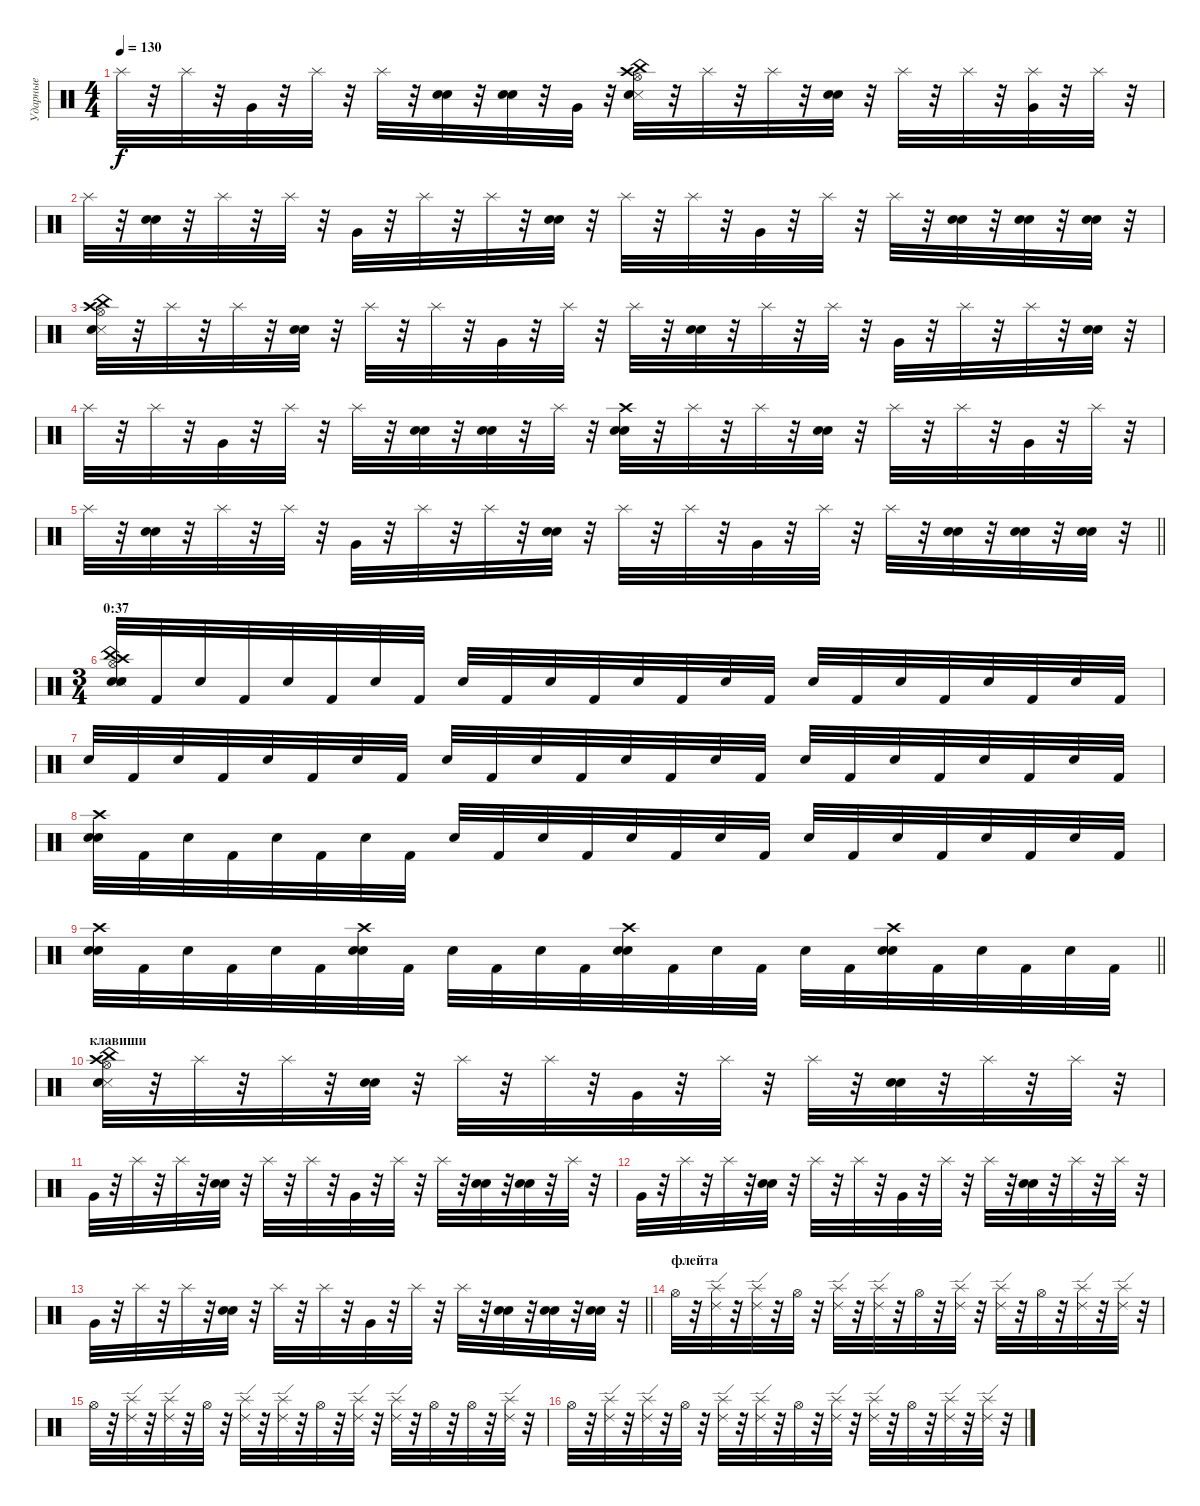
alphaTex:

\track ("Ударные" "Ударные") {instrument percussion}
\staff {score}
\articulation defaults
\ts (4 4)
\tempo 130
\clef neutral
\ks c "Splash (hit)".32{dy f}
r.32 "Splash (hit)".32 r.32 "Very Low Tom (hit)".32 r.32 "Splash (hit)".32 r.32 "Splash (hit)".32 r.32 ("Electric Snare (hit)" "Snare (hit) 2").32 r.32 ("Electric Snare (hit)" "Snare (hit) 2").32 r.32 "Very Low Tom (hit)".32 r.32 ("Crash high (hit)" "China (hit)" "Hi-Hat (open)" "Metronome (hit)" "Snare (hit) 2").32 r.32 "Splash (hit)".32 r.32 "Splash (hit)".32 r.32 ("Snare (hit) 2" "Electric Snare (hit)").32 r.32 "Splash (hit)".32 r.32 "Splash (hit)".32 r.32 ("Splash (hit)" "Very Low Tom (hit)").32 r.32 "Splash (hit)".32 r.32 |
"Splash (hit)".32 r.32 ("Snare (hit) 2" "Electric Snare (hit)").32 r.32 "Splash (hit)".32 r.32 "Splash (hit)".32 r.32 "Very Low Tom (hit)".32 r.32 "Splash (hit)".32 r.32 "Splash (hit)".32 r.32 ("Snare (hit) 2" "Electric Snare (hit)").32 r.32 "Splash (hit)".32 r.32 "Splash (hit)".32 r.32 "Very Low Tom (hit)".32 r.32 "Splash (hit)".32 r.32 "Splash (hit)".32 r.32 ("Snare (hit) 2" "Electric Snare (hit)").32 r.32 ("Snare (hit) 2" "Electric Snare (hit)").32 r.32 ("Snare (hit) 2" "Electric Snare (hit)").32 r.32 |
("Crash high (hit)" "China (hit)" "Hi-Hat (open)" "Metronome (hit)" "Snare (hit) 2").32 r.32 "Splash (hit)".32 r.32 "Splash (hit)".32 r.32 ("Electric Snare (hit)" "Snare (hit) 2").32 r.32 "Splash (hit)".32 r.32 "Splash (hit)".32 r.32 "Very Low Tom (hit)".32 r.32 "Splash (hit)".32 r.32 "Splash (hit)".32 r.32 ("Electric Snare (hit)" "Snare (hit) 2").32 r.32 "Splash (hit)".32 r.32 "Splash (hit)".32 r.32 "Very Low Tom (hit)".32 r.32 "Splash (hit)".32 r.32 "Splash (hit)".32 r.32 ("Electric Snare (hit)" "Snare (hit) 2").32 r.32 |
"Splash (hit)".32 r.32 "Splash (hit)".32 r.32 "Very Low Tom (hit)".32 r.32 "Splash (hit)".32 r.32 "Splash (hit)".32 r.32 ("Electric Snare (hit)" "Snare (hit) 2").32 r.32 ("Electric Snare (hit)" "Snare (hit) 2").32 r.32 "Splash (hit)".32 r.32 ("Crash high (hit)" "Snare (hit) 2" "Electric Snare (hit)").32 r.32 "Splash (hit)".32 r.32 "Splash (hit)".32 r.32 ("Snare (hit) 2" "Electric Snare (hit)").32 r.32 "Splash (hit)".32 r.32 "Splash (hit)".32 r.32 "Very Low Tom (hit)".32 r.32 "Splash (hit)".32 r.32 |
\barLineRight lightlight "Splash (hit)".32
r.32 ("Electric Snare (hit)" "Snare (hit) 2").32 r.32 "Splash (hit)".32 r.32 "Splash (hit)".32 r.32 "Very Low Tom (hit)".32 r.32 "Splash (hit)".32 r.32 "Splash (hit)".32 r.32 ("Electric Snare (hit)" "Snare (hit) 2").32 r.32 "Splash (hit)".32 r.32 "Splash (hit)".32 r.32 "Very Low Tom (hit)".32 r.32 "Splash (hit)".32 r.32 "Splash (hit)".32 r.32 ("Snare (hit) 2" "Electric Snare (hit)").32 r.32 ("Snare (hit) 2" "Electric Snare (hit)").32 r.32 ("Snare (hit) 2" "Electric Snare (hit)").32 r.32 |
\ts (3 4)
\section ("" "0:37")
("Electric Snare (hit)" "Crash high (hit)" "China (hit)" "Hi-Hat (open)" "Metronome (hit)" "Snare (hit) 2").32 "Kick (hit) 2".32 "Electric Snare (hit)".32 "Kick (hit) 2".32 "Electric Snare (hit)".32 "Kick (hit) 2".32 "Electric Snare (hit)".32 "Kick (hit) 2".32 "Electric Snare (hit)".32 "Kick (hit) 2".32 "Electric Snare (hit)".32 "Kick (hit) 2".32 "Electric Snare (hit)".32 "Kick (hit) 2".32 "Electric Snare (hit)".32 "Kick (hit) 2".32 "Electric Snare (hit)".32 "Kick (hit) 2".32 "Electric Snare (hit)".32 "Kick (hit) 2".32 "Electric Snare (hit)".32 "Kick (hit) 2".32 "Electric Snare (hit)".32 "Kick (hit) 2".32 |
"Electric Snare (hit)".32 "Kick (hit) 2".32 "Electric Snare (hit)".32 "Kick (hit) 2".32 "Electric Snare (hit)".32 "Kick (hit) 2".32 "Electric Snare (hit)".32 "Kick (hit) 2".32 "Electric Snare (hit)".32 "Kick (hit) 2".32 "Electric Snare (hit)".32 "Kick (hit) 2".32 "Electric Snare (hit)".32 "Kick (hit) 2".32 "Electric Snare (hit)".32 "Kick (hit) 2".32 "Electric Snare (hit)".32 "Kick (hit) 2".32 "Electric Snare (hit)".32 "Kick (hit) 2".32 "Electric Snare (hit)".32 "Kick (hit) 2".32 "Electric Snare (hit)".32 "Kick (hit) 2".32 |
("Electric Snare (hit)" "Crash high (hit)" "Snare (hit) 2").32 "Kick (hit) 2".32 "Electric Snare (hit)".32 "Kick (hit) 2".32 "Electric Snare (hit)".32 "Kick (hit) 2".32 "Electric Snare (hit)".32 "Kick (hit) 2".32 "Electric Snare (hit)".32 "Kick (hit) 2".32 "Electric Snare (hit)".32 "Kick (hit) 2".32 "Electric Snare (hit)".32 "Kick (hit) 2".32 "Electric Snare (hit)".32 "Kick (hit) 2".32 "Electric Snare (hit)".32 "Kick (hit) 2".32 "Electric Snare (hit)".32 "Kick (hit) 2".32 "Electric Snare (hit)".32 "Kick (hit) 2".32 "Electric Snare (hit)".32 "Kick (hit) 2".32 |
\barLineRight lightlight
("Electric Snare (hit)" "Crash high (hit)" "Snare (hit) 2").32 "Kick (hit) 2".32 "Electric Snare (hit)".32 "Kick (hit) 2".32 "Electric Snare (hit)".32 "Kick (hit) 2".32 ("Electric Snare (hit)" "Crash high (hit)" "Snare (hit) 2").32 "Kick (hit) 2".32 "Electric Snare (hit)".32 "Kick (hit) 2".32 "Electric Snare (hit)".32 "Kick (hit) 2".32 ("Electric Snare (hit)" "Crash high (hit)" "Snare (hit) 2").32 "Kick (hit) 2".32 "Electric Snare (hit)".32 "Kick (hit) 2".32 "Electric Snare (hit)".32 "Kick (hit) 2".32 ("Electric Snare (hit)" "Crash high (hit)" "Snare (hit) 2").32 "Kick (hit) 2".32 "Electric Snare (hit)".32 "Kick (hit) 2".32 "Electric Snare (hit)".32 "Kick (hit) 2".32 |
\section ("" "клавиши")
("Crash high (hit)" "China (hit)" "Hi-Hat (open)" "Metronome (hit)" "Snare (hit) 2").32 r.32 "Splash (hit)".32 r.32 "Splash (hit)".32 r.32 ("Electric Snare (hit)" "Snare (hit) 2").32 r.32 "Splash (hit)".32 r.32 "Splash (hit)".32 r.32 "Very Low Tom (hit)".32 r.32 "Splash (hit)".32 r.32 "Splash (hit)".32 r.32 ("Electric Snare (hit)" "Snare (hit) 2").32 r.32 "Splash (hit)".32 r.32 "Splash (hit)".32 r.32 |
"Very Low Tom (hit)".32 r.32 "Splash (hit)".32 r.32 "Splash (hit)".32 r.32 ("Electric Snare (hit)" "Snare (hit) 2").32 r.32 "Splash (hit)".32 r.32 "Splash (hit)".32 r.32 "Very Low Tom (hit)".32 r.32 "Splash (hit)".32 r.32 "Splash (hit)".32 r.32 ("Electric Snare (hit)" "Snare (hit) 2").32 r.32 ("Electric Snare (hit)" "Snare (hit) 2").32 r.32 "Splash (hit)".32 r.32 |
"Very Low Tom (hit)".32 r.32 "Splash (hit)".32 r.32 "Splash (hit)".32 r.32 ("Electric Snare (hit)" "Snare (hit) 2").32 r.32 "Splash (hit)".32 r.32 "Splash (hit)".32 r.32 "Very Low Tom (hit)".32 r.32 "Splash (hit)".32 r.32 "Splash (hit)".32 r.32 ("Electric Snare (hit)" "Snare (hit) 2").32 r.32 "Splash (hit)".32 r.32 "Splash (hit)".32 r.32 |
\barLineRight lightlight "Very Low Tom (hit)".32
r.32 "Splash (hit)".32 r.32 "Splash (hit)".32 r.32 ("Electric Snare (hit)" "Snare (hit) 2").32 r.32 "Splash (hit)".32 r.32 "Splash (hit)".32 r.32 "Very Low Tom (hit)".32 r.32 "Splash (hit)".32 r.32 "Splash (hit)".32 r.32 ("Electric Snare (hit)" "Snare (hit) 2").32 r.32 ("Electric Snare (hit)" "Snare (hit) 2").32 r.32 ("Electric Snare (hit)" "Snare (hit) 2").32 r.32 |
\section ("" "флейта")
"Hi-Hat (open)".32{volume 9} r.32 ("Ride (edge) 2" "Splash (hit)").32 r.32 ("Ride (edge) 2" "Splash (hit)").32 r.32 "Hi-Hat (open)".32 r.32 ("Ride (edge) 2" "Splash (hit)").32 r.32 ("Ride (edge) 2" "Splash (hit)").32 r.32 "Hi-Hat (open)".32 r.32 ("Ride (edge) 2" "Splash (hit)").32 r.32 ("Ride (edge) 2" "Splash (hit)").32 r.32 "Hi-Hat (open)".32 r.32 ("Ride (edge) 2" "Splash (hit)").32 r.32 ("Ride (edge) 2" "Splash (hit)").32 r.32 |
"Hi-Hat (open)".32 r.32 ("Ride (edge) 2" "Splash (hit)").32 r.32 ("Ride (edge) 2" "Splash (hit)").32 r.32 "Hi-Hat (open)".32 r.32 ("Ride (edge) 2" "Splash (hit)").32 r.32 ("Ride (edge) 2" "Splash (hit)").32 r.32 "Hi-Hat (open)".32 r.32 ("Ride (edge) 2" "Splash (hit)").32 r.32 ("Ride (edge) 2" "Splash (hit)").32 r.32 "Hi-Hat (open)".32 r.32 "Hi-Hat (open)".32 r.32 ("Ride (edge) 2" "Splash (hit)").32 r.32 |
"Hi-Hat (open)".32 r.32 ("Ride (edge) 2" "Splash (hit)").32 r.32 ("Ride (edge) 2" "Splash (hit)").32 r.32 "Hi-Hat (open)".32 r.32 ("Ride (edge) 2" "Splash (hit)").32 r.32 ("Ride (edge) 2" "Splash (hit)").32 r.32 "Hi-Hat (open)".32 r.32 ("Ride (edge) 2" "Splash (hit)").32 r.32 ("Ride (edge) 2" "Splash (hit)").32 r.32 "Hi-Hat (open)".32 r.32 ("Ride (edge) 2" "Splash (hit)").32 r.32 ("Ride (edge) 2" "Splash (hit)").32 r.32
